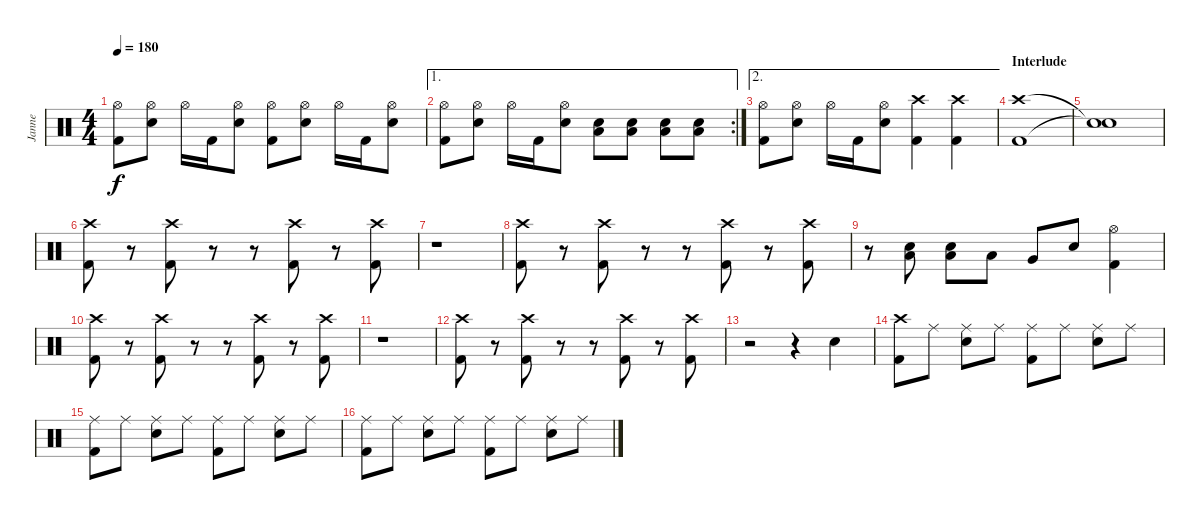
\track ("Janne" "Janne") {instrument percussion}
\staff {score}
\articulation defaults
\ts (4 4)
\tempo 180
\clef neutral
\ks c
("Hi-Hat (open)" "Kick (hit) 2").8{dy f} ("Hi-Hat (open)" "Electric Snare (hit)").8 "Hi-Hat (open)".16 "Kick (hit) 2".16 ("Hi-Hat (open)" "Electric Snare (hit)").8 ("Hi-Hat (open)" "Kick (hit) 2").8 ("Hi-Hat (open)" "Electric Snare (hit)").8 "Hi-Hat (open)".16 "Kick (hit) 2".16 ("Hi-Hat (open)" "Electric Snare (hit)").8 |
\ae 1
\rc 2
("Hi-Hat (open)" "Kick (hit) 2").8 ("Hi-Hat (open)" "Electric Snare (hit)").8 "Hi-Hat (open)".16 "Kick (hit) 2".16 ("Hi-Hat (open)" "Electric Snare (hit)").8 ("Low Floor Tom (hit)" "Electric Snare (hit)").8 ("Low Floor Tom (hit)" "Electric Snare (hit)").8 ("Low Floor Tom (hit)" "Electric Snare (hit)").8 ("Low Floor Tom (hit)" "Electric Snare (hit)").8 |
\ae 2
("Hi-Hat (open)" "Kick (hit) 2").8 ("Hi-Hat (open)" "Electric Snare (hit)").8 "Hi-Hat (open)".16 "Kick (hit) 2".16 ("Hi-Hat (open)" "Electric Snare (hit)").8 ("Crash high (hit)" "Kick (hit) 2").4 ("Crash high (hit)" "Kick (hit) 2").4 |
\section ("" "Interlude")
("Crash high (hit)" "Kick (hit) 2").1 |
("Snare (hit)"{t} "Snare (hit)"{t}).1 |
("Crash high (hit)" "Kick (hit) 2").8 r.8 ("Crash high (hit)" "Kick (hit) 2").8 r.8 r.8 ("Crash high (hit)" "Kick (hit) 2").8 r.8 ("Crash high (hit)" "Kick (hit) 2").8 |
r.1 |
("Crash high (hit)" "Kick (hit) 2").8 r.8 ("Crash high (hit)" "Kick (hit) 2").8 r.8 r.8 ("Crash high (hit)" "Kick (hit) 2").8 r.8 ("Crash high (hit)" "Kick (hit) 2").8 |
r.8 ("Low Floor Tom (hit)" "Electric Snare (hit)").8 ("Low Floor Tom (hit)" "Electric Snare (hit)").8 "Low Tom (hit)".8 "Very Low Tom (hit)".8 "Electric Snare (hit)".8 ("Hi-Hat (open)" "Kick (hit) 2").4 |
("Crash high (hit)" "Kick (hit) 2").8 r.8 ("Crash high (hit)" "Kick (hit) 2").8 r.8 r.8 ("Crash high (hit)" "Kick (hit) 2").8 r.8 ("Crash high (hit)" "Kick (hit) 2").8 |
r.1 |
("Crash high (hit)" "Kick (hit) 2").8 r.8 ("Crash high (hit)" "Kick (hit) 2").8 r.8 r.8 ("Crash high (hit)" "Kick (hit) 2").8 r.8 ("Crash high (hit)" "Kick (hit) 2").8 |
r.2 r.4 "Electric Snare (hit)".4 |
("Crash high (hit)" "Kick (hit) 2").8 "Ride (middle)".8 ("Ride (middle)" "Electric Snare (hit)").8 "Ride (middle)".8 ("Ride (middle)" "Kick (hit) 2").8 "Ride (middle)".8 ("Ride (middle)" "Electric Snare (hit)").8 "Ride (middle)".8 |
("Ride (middle)" "Kick (hit) 2").8 "Ride (middle)".8 ("Ride (middle)" "Electric Snare (hit)").8 "Ride (middle)".8 ("Ride (middle)" "Kick (hit) 2").8 "Ride (middle)".8 ("Ride (middle)" "Electric Snare (hit)").8 "Ride (middle)".8 |
("Ride (middle)" "Kick (hit) 2").8 "Ride (middle)".8 ("Ride (middle)" "Electric Snare (hit)").8 "Ride (middle)".8 ("Ride (middle)" "Kick (hit) 2").8 "Ride (middle)".8 ("Ride (middle)" "Electric Snare (hit)").8 "Ride (middle)".8
